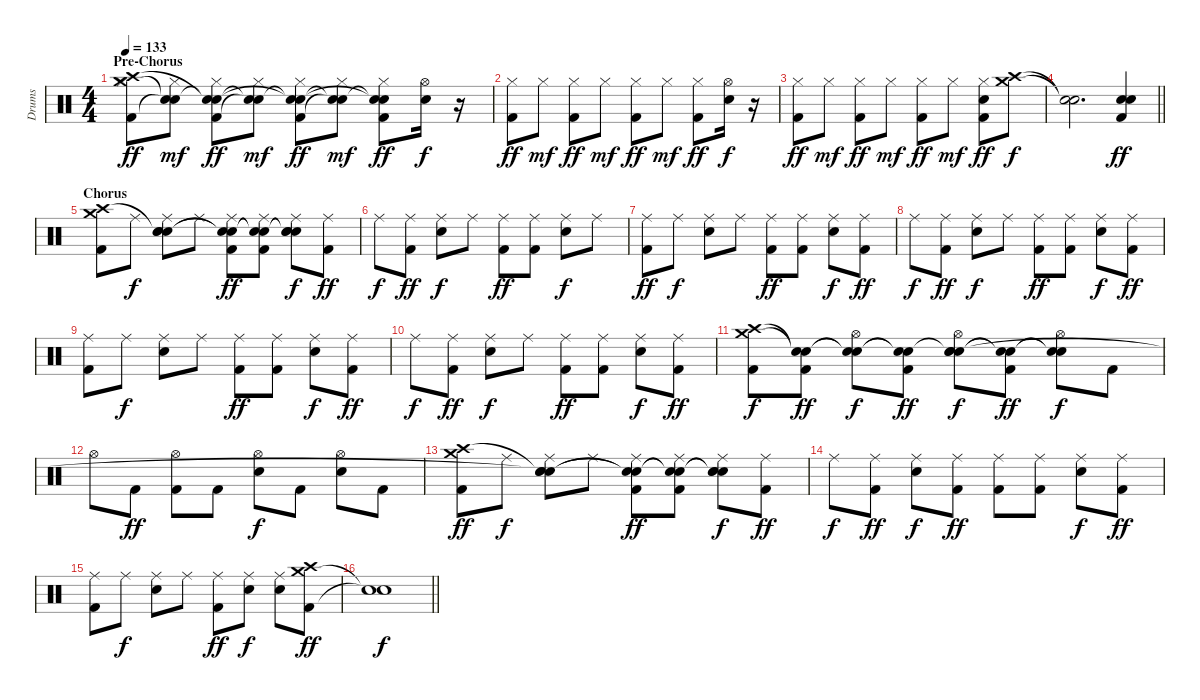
\track ("Drums" "Drums") {instrument percussion}
\staff {score}
\articulation defaults
\ts (4 4)
\section ("" "Pre-Chorus")
\tempo 133
\clef neutral
\ks c
("Hi-Hat (closed)" "Kick (hit) 2" "Crash medium (hit)" "Crash high (hit)").8{dy ff} ("Hi-Hat (closed)" "Snare (hit)"{t} "Snare (hit)"{t}).8{dy mf} ("Hi-Hat (closed)" "Kick (hit) 2" "Snare (hit)"{t} "Snare (hit)"{t}).8{dy ff} ("Hi-Hat (closed)" "Snare (hit)"{t} "Snare (hit)"{t}).8{dy mf} ("Hi-Hat (closed)" "Kick (hit) 2" "Snare (hit)"{t} "Snare (hit)"{t}).8{dy ff} ("Hi-Hat (closed)" "Snare (hit)"{t} "Snare (hit)"{t}).8{dy mf} ("Hi-Hat (closed)" "Kick (hit) 2" "Snare (hit)"{t} "Snare (hit)"{t}).8{dy ff} ("Hi-Hat (open)" "Snare (hit) 2").16{dy f} r.16 |
("Hi-Hat (closed)" "Kick (hit) 2").8{dy ff} "Hi-Hat (closed)".8{dy mf} ("Hi-Hat (closed)" "Kick (hit) 2").8{dy ff} "Hi-Hat (closed)".8{dy mf} ("Hi-Hat (closed)" "Kick (hit) 2").8{dy ff} "Hi-Hat (closed)".8{dy mf} ("Hi-Hat (closed)" "Kick (hit) 2").8{dy ff} ("Hi-Hat (open)" "Snare (hit) 2").16{dy f} r.16 |
("Hi-Hat (closed)" "Kick (hit) 2").8{dy ff} "Hi-Hat (closed)".8{dy mf} ("Hi-Hat (closed)" "Kick (hit) 2").8{dy ff} "Hi-Hat (closed)".8{dy mf} ("Hi-Hat (closed)" "Kick (hit) 2").8{dy ff} "Hi-Hat (closed)".8{dy mf} ("Hi-Hat (closed)" "Snare (hit) 2" "Kick (hit) 2").8{dy ff} ("Crash medium (hit)" "Crash high (hit)").8{dy f} |
\barLineRight lightlight
("Snare (hit)"{t} "Snare (hit)"{t}).2{d} ("Snare (hit) 2" "Snare (hit) 2" "Kick (hit) 2").4{dy ff} |
\section ("" "Chorus")
("Kick (hit) 2" "Crash medium (hit)" "Crash high (hit)").8 "Ride (middle)".8{dy f} ("Ride (middle)" "Snare (hit) 2" "Snare (hit)"{t} "Snare (hit)").8 "Ride (middle)".8 ("Ride (middle)" "Kick (hit) 2" "Snare (hit)"{t} "Snare (hit)"{t}).8{dy ff} ("Ride (middle)" "Kick (hit) 2" "Snare (hit)"{t} "Snare (hit)"{t}).8 ("Ride (middle)" "Snare (hit) 2" "Snare (hit)"{t} "Snare (hit)"{t}).8{dy f} ("Ride (middle)" "Kick (hit) 2").8{dy ff} |
"Ride (middle)".8{dy f} ("Ride (middle)" "Kick (hit) 2").8{dy ff} ("Ride (middle)" "Snare (hit) 2").8{dy f} "Ride (middle)".8 ("Ride (middle)" "Kick (hit) 2").8{dy ff} ("Ride (middle)" "Kick (hit) 2").8 ("Ride (middle)" "Snare (hit) 2").8{dy f} "Ride (middle)".8 |
("Ride (middle)" "Kick (hit) 2").8{dy ff} "Ride (middle)".8{dy f} ("Ride (middle)" "Snare (hit) 2").8 "Ride (middle)".8 ("Ride (middle)" "Kick (hit) 2").8{dy ff} ("Ride (middle)" "Kick (hit) 2").8 ("Ride (middle)" "Snare (hit) 2").8{dy f} ("Ride (middle)" "Kick (hit) 2").8{dy ff} |
"Ride (middle)".8{dy f} ("Ride (middle)" "Kick (hit) 2").8{dy ff} ("Ride (middle)" "Snare (hit) 2").8{dy f} "Ride (middle)".8 ("Ride (middle)" "Kick (hit) 2").8{dy ff} ("Ride (middle)" "Kick (hit) 2").8 ("Ride (middle)" "Snare (hit) 2").8{dy f} ("Ride (middle)" "Kick (hit) 2").8{dy ff} |
("Ride (middle)" "Kick (hit) 2").8 "Ride (middle)".8{dy f} ("Ride (middle)" "Snare (hit) 2").8 "Ride (middle)".8 ("Ride (middle)" "Kick (hit) 2").8{dy ff} ("Ride (middle)" "Kick (hit) 2").8 ("Ride (middle)" "Snare (hit) 2").8{dy f} ("Ride (middle)" "Kick (hit) 2").8{dy ff} |
"Ride (middle)".8{dy f} ("Ride (middle)" "Kick (hit) 2").8{dy ff} ("Ride (middle)" "Snare (hit) 2").8{dy f} "Ride (middle)".8 ("Ride (middle)" "Kick (hit) 2").8{dy ff} ("Ride (middle)" "Kick (hit) 2").8 ("Ride (middle)" "Snare (hit) 2").8{dy f} ("Ride (middle)" "Kick (hit) 2").8{dy ff} |
("Kick (hit) 2" "Crash high (hit)" "Crash medium (hit)").8{dy f} ("Kick (hit) 2" "Snare (hit)"{t} "Snare (hit)"{t}).8{dy ff} ("Hi-Hat (open)" "Snare (hit)"{t} "Snare (hit)"{t}).8{dy f} ("Kick (hit) 2" "Snare (hit)"{t} "Snare (hit)"{t}).8{dy ff} ("Hi-Hat (open)" "Snare (hit) 2" "Snare (hit)"{t} "Snare (hit)").8{dy f} ("Kick (hit) 2" "Snare (hit)"{t} "Snare (hit)"{t}).8{dy ff} ("Hi-Hat (open)" "Snare (hit)"{t} "Snare (hit)"{t}).8{dy f} "Kick (hit) 2".8 |
"Hi-Hat (open)".8 "Kick (hit) 2".8{dy ff} ("Hi-Hat (open)" "Kick (hit) 2").8 "Kick (hit) 2".8 ("Hi-Hat (open)" "Snare (hit) 2").8{dy f} "Kick (hit) 2".8 ("Hi-Hat (open)" "Snare (hit) 2").8 "Kick (hit) 2".8 |
("Kick (hit) 2" "Crash medium (hit)" "Crash high (hit)").8{dy ff} "Ride (middle)".8{dy f} ("Ride (middle)" "Snare (hit) 2" "Snare (hit)"{t} "Snare (hit)"{t}).8 "Ride (middle)".8 ("Ride (middle)" "Kick (hit) 2" "Snare (hit)"{t} "Snare (hit)"{t}).8{dy ff} ("Ride (middle)" "Kick (hit) 2" "Snare (hit)"{t} "Snare (hit)"{t}).8 ("Ride (middle)" "Snare (hit) 2" "Snare (hit)"{t} "Snare (hit)"{t}).8{dy f} ("Ride (middle)" "Kick (hit) 2").8{dy ff} |
"Ride (middle)".8{dy f} ("Ride (middle)" "Kick (hit) 2").8{dy ff} ("Ride (middle)" "Snare (hit) 2").8{dy f} ("Ride (middle)" "Kick (hit) 2").8{dy ff} ("Ride (middle)" "Kick (hit) 2").8 ("Ride (middle)" "Kick (hit) 2").8 ("Ride (middle)" "Snare (hit) 2").8{dy f} ("Ride (middle)" "Kick (hit) 2").8{dy ff} |
("Ride (middle)" "Kick (hit) 2").8 "Ride (middle)".8{dy f} ("Ride (middle)" "Snare (hit) 2").8 "Ride (middle)".8 ("Ride (middle)" "Kick (hit) 2").8{dy ff} ("Ride (middle)" "Snare (hit) 2").8{dy f} ("Ride (middle)" "Snare (hit) 2").8 ("Kick (hit) 2" "Crash medium (hit)" "Crash high (hit)").8{dy ff} |
\barLineRight lightlight
("Snare (hit)"{t} "Snare (hit)"{t}).1{dy f}
